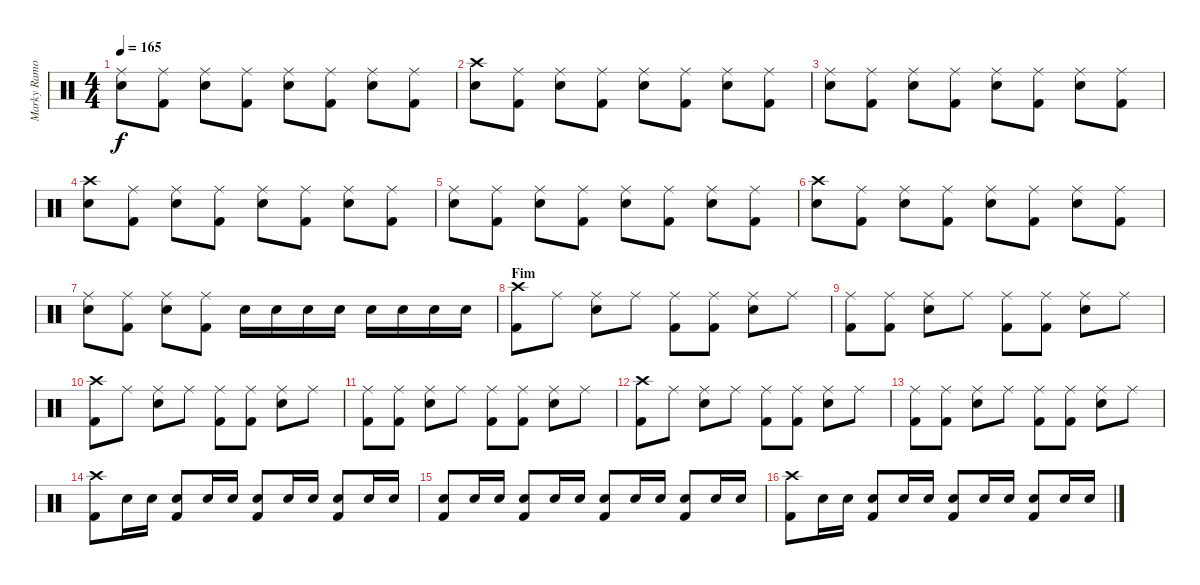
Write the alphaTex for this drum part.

\track ("Marky Ramone, o Próprio" "Marky Ramo") {instrument percussion}
\staff {score}
\articulation defaults
\ts (4 4)
\tempo 165
\clef neutral
\ks c
("Ride (middle)" "Electric Snare (hit)").8{dy f} ("Ride (middle)" "Kick (hit) 2").8 ("Ride (middle)" "Electric Snare (hit)").8 ("Ride (middle)" "Kick (hit) 2").8 ("Ride (middle)" "Electric Snare (hit)").8 ("Ride (middle)" "Kick (hit) 2").8 ("Ride (middle)" "Electric Snare (hit)").8 ("Ride (middle)" "Kick (hit) 2").8 |
("Crash high (hit)" "Electric Snare (hit)").8 ("Ride (middle)" "Kick (hit) 2").8 ("Ride (middle)" "Electric Snare (hit)").8 ("Ride (middle)" "Kick (hit) 2").8 ("Ride (middle)" "Electric Snare (hit)").8 ("Ride (middle)" "Kick (hit) 2").8 ("Ride (middle)" "Electric Snare (hit)").8 ("Ride (middle)" "Kick (hit) 2").8 |
("Ride (middle)" "Electric Snare (hit)").8 ("Ride (middle)" "Kick (hit) 2").8 ("Ride (middle)" "Electric Snare (hit)").8 ("Ride (middle)" "Kick (hit) 2").8 ("Ride (middle)" "Electric Snare (hit)").8 ("Ride (middle)" "Kick (hit) 2").8 ("Ride (middle)" "Electric Snare (hit)").8 ("Ride (middle)" "Kick (hit) 2").8 |
("Crash high (hit)" "Electric Snare (hit)").8 ("Ride (middle)" "Kick (hit) 2").8 ("Ride (middle)" "Electric Snare (hit)").8 ("Ride (middle)" "Kick (hit) 2").8 ("Ride (middle)" "Electric Snare (hit)").8 ("Ride (middle)" "Kick (hit) 2").8 ("Ride (middle)" "Electric Snare (hit)").8 ("Ride (middle)" "Kick (hit) 2").8 |
("Ride (middle)" "Electric Snare (hit)").8 ("Ride (middle)" "Kick (hit) 2").8 ("Ride (middle)" "Electric Snare (hit)").8 ("Ride (middle)" "Kick (hit) 2").8 ("Ride (middle)" "Electric Snare (hit)").8 ("Ride (middle)" "Kick (hit) 2").8 ("Ride (middle)" "Electric Snare (hit)").8 ("Ride (middle)" "Kick (hit) 2").8 |
("Crash high (hit)" "Electric Snare (hit)").8 ("Ride (middle)" "Kick (hit) 2").8 ("Ride (middle)" "Electric Snare (hit)").8 ("Ride (middle)" "Kick (hit) 2").8 ("Ride (middle)" "Electric Snare (hit)").8 ("Ride (middle)" "Kick (hit) 2").8 ("Ride (middle)" "Electric Snare (hit)").8 ("Ride (middle)" "Kick (hit) 2").8 |
("Ride (middle)" "Electric Snare (hit)").8 ("Ride (middle)" "Kick (hit) 2").8 ("Ride (middle)" "Electric Snare (hit)").8 ("Ride (middle)" "Kick (hit) 2").8 "Electric Snare (hit)".16 "Electric Snare (hit)".16 "Electric Snare (hit)".16 "Electric Snare (hit)".16 "Electric Snare (hit)".16 "Electric Snare (hit)".16 "Electric Snare (hit)".16 "Electric Snare (hit)".16 |
\section ("" "Fim")
("Crash high (hit)" "Kick (hit) 2").8 "Ride (middle)".8 ("Ride (middle)" "Electric Snare (hit)").8 "Ride (middle)".8 ("Ride (middle)" "Kick (hit) 2").8 ("Ride (middle)" "Kick (hit) 2").8 ("Ride (middle)" "Electric Snare (hit)").8 "Ride (middle)".8 |
("Ride (middle)" "Kick (hit) 2").8 ("Ride (middle)" "Kick (hit) 2").8 ("Ride (middle)" "Electric Snare (hit)").8 "Ride (middle)".8 ("Ride (middle)" "Kick (hit) 2").8 ("Ride (middle)" "Kick (hit) 2").8 ("Ride (middle)" "Electric Snare (hit)").8 "Ride (middle)".8 |
("Crash high (hit)" "Kick (hit) 2").8 "Ride (middle)".8 ("Ride (middle)" "Electric Snare (hit)").8 "Ride (middle)".8 ("Ride (middle)" "Kick (hit) 2").8 ("Ride (middle)" "Kick (hit) 2").8 ("Ride (middle)" "Electric Snare (hit)").8 "Ride (middle)".8 |
("Ride (middle)" "Kick (hit) 2").8 ("Ride (middle)" "Kick (hit) 2").8 ("Ride (middle)" "Electric Snare (hit)").8 "Ride (middle)".8 ("Ride (middle)" "Kick (hit) 2").8 ("Ride (middle)" "Kick (hit) 2").8 ("Ride (middle)" "Electric Snare (hit)").8 "Ride (middle)".8 |
("Crash high (hit)" "Kick (hit) 2").8 "Ride (middle)".8 ("Ride (middle)" "Electric Snare (hit)").8 "Ride (middle)".8 ("Ride (middle)" "Kick (hit) 2").8 ("Ride (middle)" "Kick (hit) 2").8 ("Ride (middle)" "Electric Snare (hit)").8 "Ride (middle)".8 |
("Ride (middle)" "Kick (hit) 2").8 ("Ride (middle)" "Kick (hit) 2").8 ("Ride (middle)" "Electric Snare (hit)").8 "Ride (middle)".8 ("Ride (middle)" "Kick (hit) 2").8 ("Ride (middle)" "Kick (hit) 2").8 ("Ride (middle)" "Electric Snare (hit)").8 "Ride (middle)".8 |
("Crash high (hit)" "Kick (hit) 2").8 "Electric Snare (hit)".16 "Electric Snare (hit)".16 ("Electric Snare (hit)" "Kick (hit) 2").8 "Electric Snare (hit)".16 "Electric Snare (hit)".16 ("Electric Snare (hit)" "Kick (hit) 2").8 "Electric Snare (hit)".16 "Electric Snare (hit)".16 ("Electric Snare (hit)" "Kick (hit) 2").8 "Electric Snare (hit)".16 "Electric Snare (hit)".16 |
("Electric Snare (hit)" "Kick (hit) 2").8 "Electric Snare (hit)".16 "Electric Snare (hit)".16 ("Electric Snare (hit)" "Kick (hit) 2").8 "Electric Snare (hit)".16 "Electric Snare (hit)".16 ("Electric Snare (hit)" "Kick (hit) 2").8 "Electric Snare (hit)".16 "Electric Snare (hit)".16 ("Electric Snare (hit)" "Kick (hit) 2").8 "Electric Snare (hit)".16 "Electric Snare (hit)".16 |
("Crash high (hit)" "Kick (hit) 2").8 "Electric Snare (hit)".16 "Electric Snare (hit)".16 ("Electric Snare (hit)" "Kick (hit) 2").8 "Electric Snare (hit)".16 "Electric Snare (hit)".16 ("Electric Snare (hit)" "Kick (hit) 2").8 "Electric Snare (hit)".16 "Electric Snare (hit)".16 ("Electric Snare (hit)" "Kick (hit) 2").8 "Electric Snare (hit)".16 "Electric Snare (hit)".16
